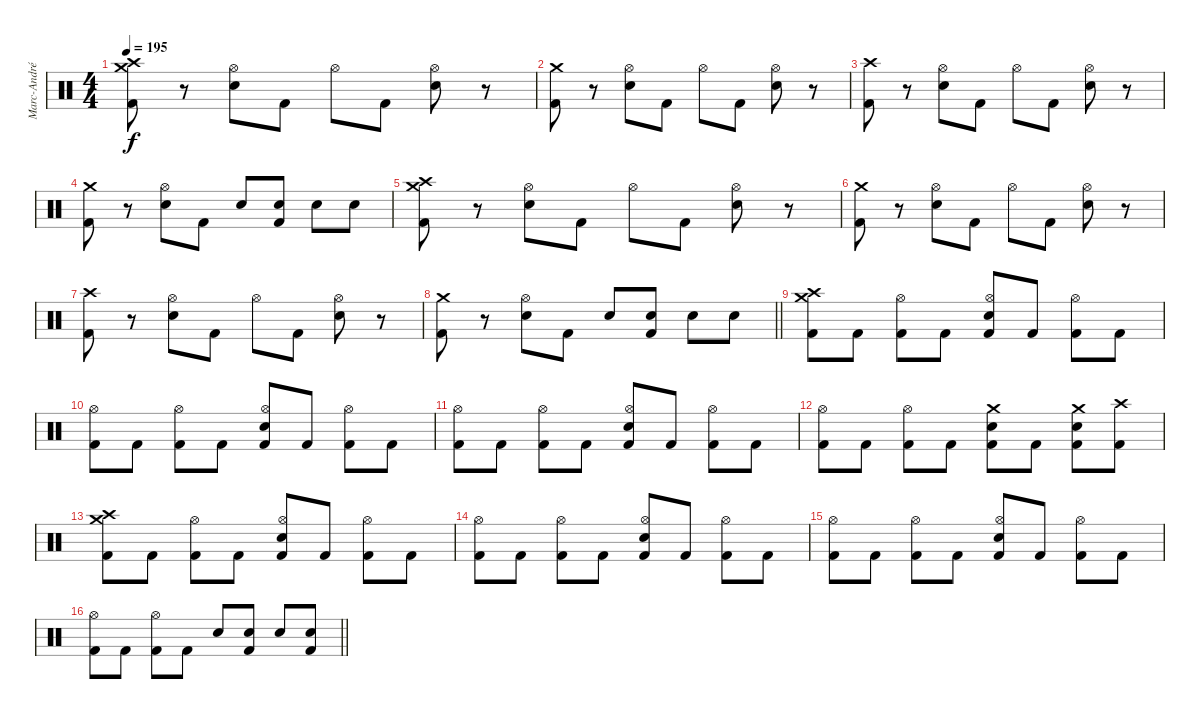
\track ("Marc-André Barabé" "Marc-André") {instrument percussion}
\staff {score}
\articulation defaults
\ts (4 4)
\tempo 195
\clef neutral
\ks c
("Crash high (hit)" "Crash medium (hit)" "Kick (hit) 2").8{dy f} r.8 ("Hi-Hat (open)" "Electric Snare (hit)").8 "Kick (hit) 2".8 "Hi-Hat (open)".8 "Kick (hit) 2".8 ("Hi-Hat (open)" "Electric Snare (hit)").8 r.8 |
("Crash medium (hit)" "Kick (hit) 2").8 r.8 ("Hi-Hat (open)" "Electric Snare (hit)").8 "Kick (hit) 2".8 "Hi-Hat (open)".8 "Kick (hit) 2".8 ("Hi-Hat (open)" "Electric Snare (hit)").8 r.8 |
("Crash high (hit)" "Kick (hit) 2").8 r.8 ("Hi-Hat (open)" "Electric Snare (hit)").8 "Kick (hit) 2".8 "Hi-Hat (open)".8 "Kick (hit) 2".8 ("Hi-Hat (open)" "Electric Snare (hit)").8 r.8 |
("Crash medium (hit)" "Kick (hit) 2").8 r.8 ("Hi-Hat (open)" "Electric Snare (hit)").8 "Kick (hit) 2".8 "Electric Snare (hit)"{tr (4 32)}.8 ("Electric Snare (hit)"{tr (4 32)} "Kick (hit) 2").8 "Electric Snare (hit)"{tr (4 32)}.8 "Electric Snare (hit)"{tr (4 32)}.8 |
("Crash high (hit)" "Crash medium (hit)" "Kick (hit) 2").8 r.8 ("Hi-Hat (open)" "Electric Snare (hit)").8 "Kick (hit) 2".8 "Hi-Hat (open)".8 "Kick (hit) 2".8 ("Hi-Hat (open)" "Electric Snare (hit)").8 r.8 |
("Crash medium (hit)" "Kick (hit) 2").8 r.8 ("Hi-Hat (open)" "Electric Snare (hit)").8 "Kick (hit) 2".8 "Hi-Hat (open)".8 "Kick (hit) 2".8 ("Hi-Hat (open)" "Electric Snare (hit)").8 r.8 |
("Crash high (hit)" "Kick (hit) 2").8 r.8 ("Hi-Hat (open)" "Electric Snare (hit)").8 "Kick (hit) 2".8 "Hi-Hat (open)".8 "Kick (hit) 2".8 ("Hi-Hat (open)" "Electric Snare (hit)").8 r.8 |
\barLineRight lightlight
("Crash medium (hit)" "Kick (hit) 2").8 r.8 ("Hi-Hat (open)" "Electric Snare (hit)").8 "Kick (hit) 2".8 "Electric Snare (hit)"{tr (4 32)}.8 ("Electric Snare (hit)"{tr (4 32)} "Kick (hit) 2").8 "Electric Snare (hit)"{tr (4 32)}.8 "Electric Snare (hit)"{tr (4 32)}.8 |
("Crash high (hit)" "Crash medium (hit)" "Kick (hit) 2"{tr (36 32)}).8 "Kick (hit) 2"{tr (36 32)}.8 ("Hi-Hat (open)" "Kick (hit) 2"{tr (36 32)}).8 "Kick (hit) 2"{tr (36 32)}.8 ("Hi-Hat (open)" "Electric Snare (hit)" "Kick (hit) 2"{tr (36 32)}).8 "Kick (hit) 2"{tr (36 32)}.8 ("Hi-Hat (open)" "Kick (hit) 2"{tr (36 32)}).8 "Kick (hit) 2"{tr (36 32)}.8 |
("Hi-Hat (open)" "Kick (hit) 2"{tr (36 32)}).8 "Kick (hit) 2"{tr (36 32)}.8 ("Hi-Hat (open)" "Kick (hit) 2"{tr (36 32)}).8 "Kick (hit) 2"{tr (36 32)}.8 ("Hi-Hat (open)" "Electric Snare (hit)" "Kick (hit) 2"{tr (36 32)}).8 "Kick (hit) 2"{tr (36 32)}.8 ("Hi-Hat (open)" "Kick (hit) 2"{tr (36 32)}).8 "Kick (hit) 2"{tr (36 32)}.8 |
("Hi-Hat (open)" "Kick (hit) 2"{tr (36 32)}).8 "Kick (hit) 2"{tr (36 32)}.8 ("Hi-Hat (open)" "Kick (hit) 2"{tr (36 32)}).8 "Kick (hit) 2"{tr (36 32)}.8 ("Hi-Hat (open)" "Electric Snare (hit)" "Kick (hit) 2"{tr (36 32)}).8 "Kick (hit) 2"{tr (36 32)}.8 ("Hi-Hat (open)" "Kick (hit) 2"{tr (36 32)}).8 "Kick (hit) 2"{tr (36 32)}.8 |
("Hi-Hat (open)" "Kick (hit) 2"{tr (36 32)}).8 "Kick (hit) 2"{tr (36 32)}.8 ("Hi-Hat (open)" "Kick (hit) 2"{tr (36 32)}).8 "Kick (hit) 2"{tr (36 32)}.8 ("Crash medium (hit)" "Electric Snare (hit)" "Kick (hit) 2"{tr (36 32)}).8 "Kick (hit) 2"{tr (36 32)}.8 ("Crash medium (hit)" "Electric Snare (hit)" "Kick (hit) 2"{tr (36 32)}).8 ("Crash high (hit)" "Kick (hit) 2"{tr (36 32)}).8 |
("Crash high (hit)" "Crash medium (hit)" "Kick (hit) 2"{tr (36 32)}).8 "Kick (hit) 2"{tr (36 32)}.8 ("Hi-Hat (open)" "Kick (hit) 2"{tr (36 32)}).8 "Kick (hit) 2"{tr (36 32)}.8 ("Hi-Hat (open)" "Electric Snare (hit)" "Kick (hit) 2"{tr (36 32)}).8 "Kick (hit) 2"{tr (36 32)}.8 ("Hi-Hat (open)" "Kick (hit) 2"{tr (36 32)}).8 "Kick (hit) 2"{tr (36 32)}.8 |
("Hi-Hat (open)" "Kick (hit) 2"{tr (36 32)}).8 "Kick (hit) 2"{tr (36 32)}.8 ("Hi-Hat (open)" "Kick (hit) 2"{tr (36 32)}).8 "Kick (hit) 2"{tr (36 32)}.8 ("Hi-Hat (open)" "Electric Snare (hit)" "Kick (hit) 2"{tr (36 32)}).8 "Kick (hit) 2"{tr (36 32)}.8 ("Hi-Hat (open)" "Kick (hit) 2"{tr (36 32)}).8 "Kick (hit) 2"{tr (36 32)}.8 |
("Hi-Hat (open)" "Kick (hit) 2"{tr (36 32)}).8 "Kick (hit) 2"{tr (36 32)}.8 ("Hi-Hat (open)" "Kick (hit) 2"{tr (36 32)}).8 "Kick (hit) 2"{tr (36 32)}.8 ("Hi-Hat (open)" "Electric Snare (hit)" "Kick (hit) 2"{tr (36 32)}).8 "Kick (hit) 2"{tr (36 32)}.8 ("Hi-Hat (open)" "Kick (hit) 2"{tr (36 32)}).8 "Kick (hit) 2"{tr (36 32)}.8 |
\barLineRight lightlight
("Hi-Hat (open)" "Kick (hit) 2"{tr (36 32)}).8 "Kick (hit) 2"{tr (36 32)}.8 ("Hi-Hat (open)" "Kick (hit) 2"{tr (36 32)}).8 "Kick (hit) 2".8 "Electric Snare (hit)"{tr (4 32)}.8 ("Electric Snare (hit)"{tr (4 32)} "Kick (hit) 2").8 "Electric Snare (hit)"{tr (4 32)}.8 ("Electric Snare (hit)"{tr (4 32)} "Kick (hit) 2").8
